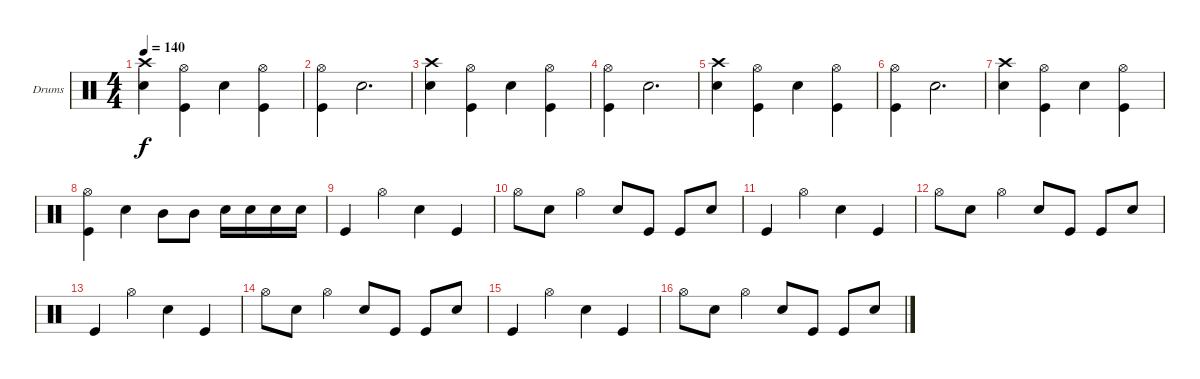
\bracketExtendMode groupsimilarinstruments
\firstSystemTrackNameOrientation horizontal
\otherSystemsTrackNameOrientation horizontal
\track ("Batterie - Anders Johansson" "Drums") {instrument percussion}
\staff {score}
\articulation defaults
\ts (4 4)
\tempo 140
\clef neutral
\ks c
("Crash high (hit)" "Snare (hit) 2").4{dy f} ("Hi-Hat (open)" "Kick (hit)").4 "Snare (hit) 2".4 ("Hi-Hat (open)" "Kick (hit)").4 |
("Hi-Hat (open)" "Kick (hit)").4 "Snare (hit) 2".2{d} |
("Crash high (hit)" "Snare (hit) 2").4 ("Hi-Hat (open)" "Kick (hit)").4 "Snare (hit) 2".4 ("Hi-Hat (open)" "Kick (hit)").4 |
("Hi-Hat (open)" "Kick (hit)").4 "Snare (hit) 2".2{d} |
("Crash high (hit)" "Snare (hit) 2").4 ("Hi-Hat (open)" "Kick (hit)").4 "Snare (hit) 2".4 ("Hi-Hat (open)" "Kick (hit)").4 |
("Hi-Hat (open)" "Kick (hit)").4 "Snare (hit) 2".2{d} |
("Crash high (hit)" "Snare (hit) 2").4 ("Hi-Hat (open)" "Kick (hit)").4 "Snare (hit) 2".4 ("Hi-Hat (open)" "Kick (hit)").4 |
("Hi-Hat (open)" "Kick (hit)").4 "Snare (hit) 2".4 "Mid Tom (hit)".8 "Mid Tom (hit)".8 "Snare (hit) 2".16 "Snare (hit) 2".16 "Snare (hit) 2".16 "Snare (hit) 2".16 |
"Kick (hit)".4 "Hi-Hat (open)".4 "Snare (hit) 2".4 "Kick (hit)".4 |
"Hi-Hat (open)".8 "Snare (hit) 2".8 "Hi-Hat (open)".4 "Snare (hit) 2".8 "Kick (hit)".8 "Kick (hit)".8 "Snare (hit) 2".8 |
"Kick (hit)".4 "Hi-Hat (open)".4 "Snare (hit) 2".4 "Kick (hit)".4 |
"Hi-Hat (open)".8 "Snare (hit) 2".8 "Hi-Hat (open)".4 "Snare (hit) 2".8 "Kick (hit)".8 "Kick (hit)".8 "Snare (hit) 2".8 |
"Kick (hit)".4 "Hi-Hat (open)".4 "Snare (hit) 2".4 "Kick (hit)".4 |
"Hi-Hat (open)".8 "Snare (hit) 2".8 "Hi-Hat (open)".4 "Snare (hit) 2".8 "Kick (hit)".8 "Kick (hit)".8 "Snare (hit) 2".8 |
"Kick (hit)".4 "Hi-Hat (open)".4 "Snare (hit) 2".4 "Kick (hit)".4 |
"Hi-Hat (open)".8 "Snare (hit) 2".8 "Hi-Hat (open)".4 "Snare (hit) 2".8 "Kick (hit)".8 "Kick (hit)".8 "Snare (hit) 2".8
